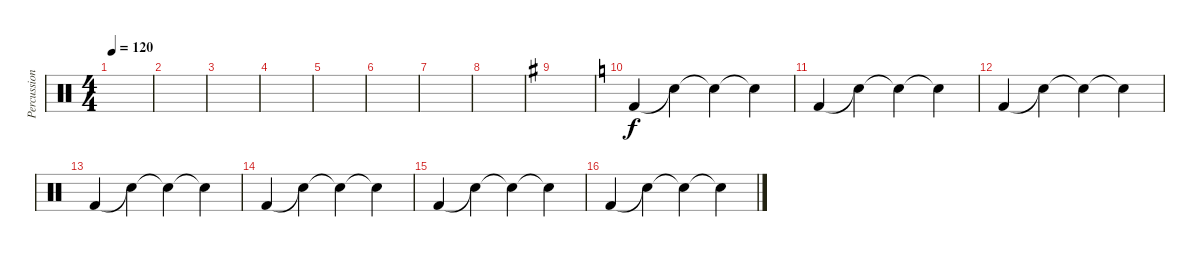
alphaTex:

\track ("Percussion" "Percussion") {instrument percussion}
\staff {score}
\articulation defaults
\ts (4 4)
\tempo 120
\clef neutral
\ks c
|
|
|
|
|
|
|
|
\ks g
|
\ks c "Kick (hit) 2".4 "Snare (hit)"{t}.4 "Snare (hit)"{t}.4 "Snare (hit)"{t}.4
|
"Kick (hit) 2".4 "Snare (hit)"{t}.4 "Snare (hit)"{t}.4 "Snare (hit)"{t}.4 |
"Kick (hit) 2".4 "Snare (hit)"{t}.4 "Snare (hit)"{t}.4 "Snare (hit)"{t}.4 |
"Kick (hit) 2".4 "Snare (hit)"{t}.4 "Snare (hit)"{t}.4 "Snare (hit)"{t}.4 |
"Kick (hit) 2".4 "Snare (hit)"{t}.4 "Snare (hit)"{t}.4 "Snare (hit)"{t}.4 |
"Kick (hit) 2".4 "Snare (hit)"{t}.4 "Snare (hit)"{t}.4 "Snare (hit)"{t}.4 |
"Kick (hit) 2".4 "Snare (hit)"{t}.4 "Snare (hit)"{t}.4 "Snare (hit)"{t}.4
